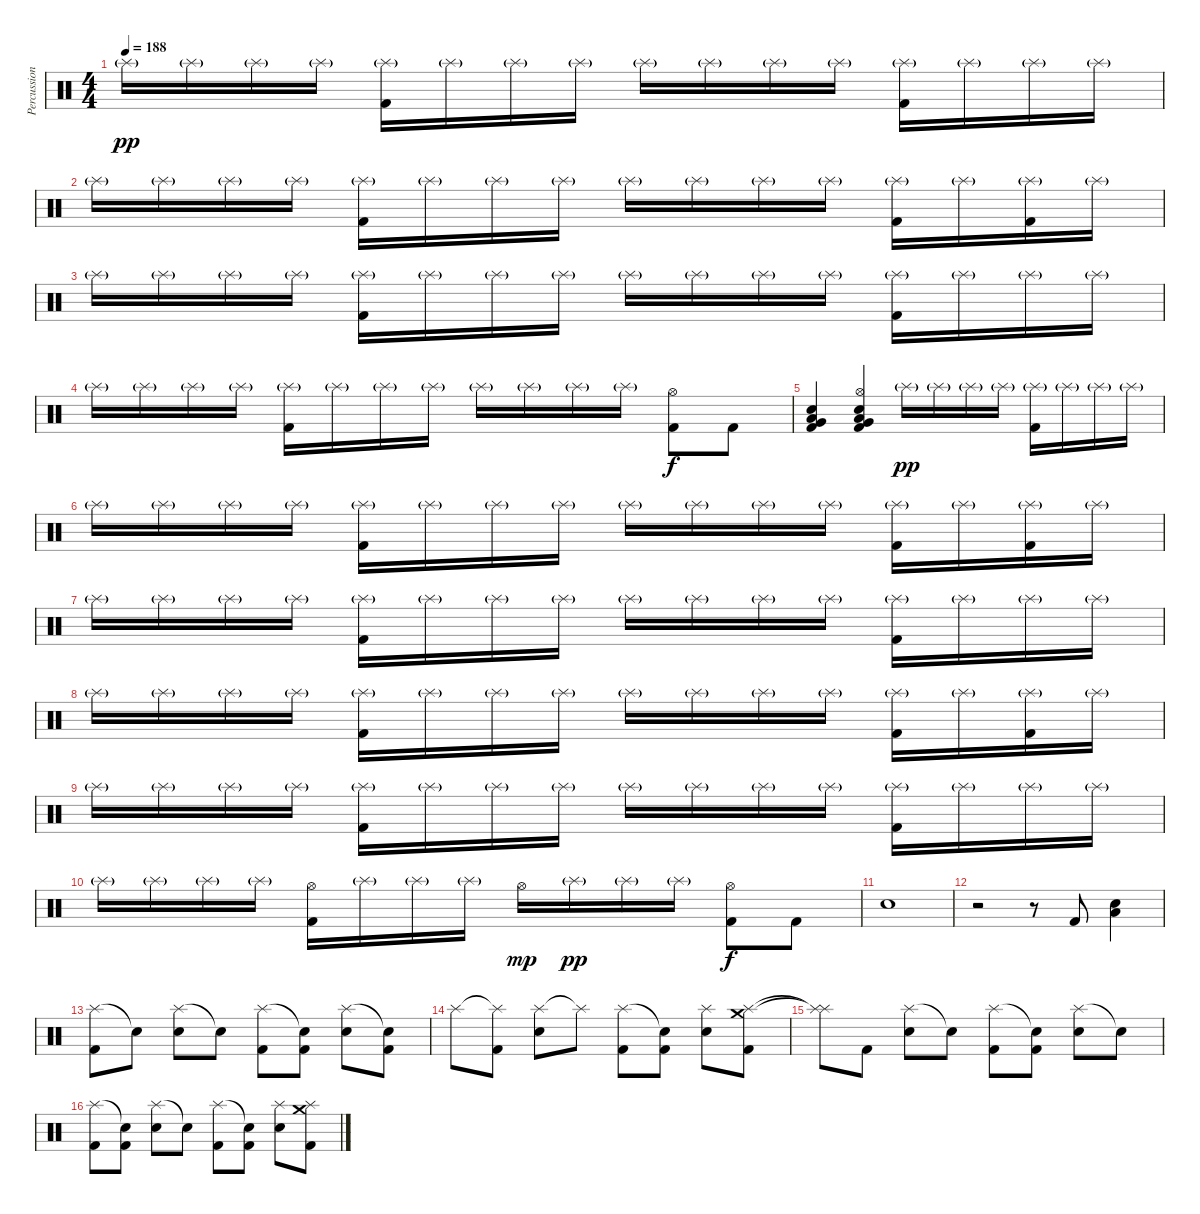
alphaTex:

\track ("Percussion" "Percussion") {instrument percussion}
\staff {score}
\articulation defaults
\ts (4 4)
\tempo 188
\clef neutral
\ks c "Splash (hit)"{g}.16{dy pp} "Splash (hit)"{g}.16 "Splash (hit)"{g}.16 "Splash (hit)"{g}.16
("Splash (hit)"{g} "Kick (hit) 2").16 "Splash (hit)"{g}.16 "Splash (hit)"{g}.16 "Splash (hit)"{g}.16 "Splash (hit)"{g}.16 "Splash (hit)"{g}.16 "Splash (hit)"{g}.16 "Splash (hit)"{g}.16 ("Splash (hit)"{g} "Kick (hit) 2").16 "Splash (hit)"{g}.16 "Splash (hit)"{g}.16 "Splash (hit)"{g}.16 |
"Splash (hit)"{g}.16 "Splash (hit)"{g}.16 "Splash (hit)"{g}.16 "Splash (hit)"{g}.16 ("Splash (hit)"{g} "Kick (hit) 2").16 "Splash (hit)"{g}.16 "Splash (hit)"{g}.16 "Splash (hit)"{g}.16 "Splash (hit)"{g}.16 "Splash (hit)"{g}.16 "Splash (hit)"{g}.16 "Splash (hit)"{g}.16 ("Splash (hit)"{g} "Kick (hit) 2").16 "Splash (hit)"{g}.16 ("Splash (hit)"{g} "Kick (hit) 2").16 "Splash (hit)"{g}.16 |
"Splash (hit)"{g}.16 "Splash (hit)"{g}.16 "Splash (hit)"{g}.16 "Splash (hit)"{g}.16 ("Splash (hit)"{g} "Kick (hit) 2").16 "Splash (hit)"{g}.16 "Splash (hit)"{g}.16 "Splash (hit)"{g}.16 "Splash (hit)"{g}.16 "Splash (hit)"{g}.16 "Splash (hit)"{g}.16 "Splash (hit)"{g}.16 ("Splash (hit)"{g} "Kick (hit) 2").16 "Splash (hit)"{g}.16 "Splash (hit)"{g}.16 "Splash (hit)"{g}.16 |
"Splash (hit)"{g}.16 "Splash (hit)"{g}.16 "Splash (hit)"{g}.16 "Splash (hit)"{g}.16 ("Splash (hit)"{g} "Kick (hit) 2").16 "Splash (hit)"{g}.16 "Splash (hit)"{g}.16 "Splash (hit)"{g}.16 "Splash (hit)"{g}.16 "Splash (hit)"{g}.16 "Splash (hit)"{g}.16 "Splash (hit)"{g}.16 ("Hi-Hat (open)" "Kick (hit) 2").8{dy f} "Kick (hit) 2".8 |
("Electric Snare (hit)" "Low Floor Tom (hit)" "Very Low Tom (hit)" "Kick (hit) 2").4 ("Hi-Hat (open)" "Electric Snare (hit)" "Low Floor Tom (hit)" "Very Low Tom (hit)" "Kick (hit) 2").4 "Splash (hit)"{g}.16{dy pp} "Splash (hit)"{g}.16 "Splash (hit)"{g}.16 "Splash (hit)"{g}.16 ("Splash (hit)"{g} "Kick (hit) 2").16 "Splash (hit)"{g}.16 "Splash (hit)"{g}.16 "Splash (hit)"{g}.16 |
"Splash (hit)"{g}.16 "Splash (hit)"{g}.16 "Splash (hit)"{g}.16 "Splash (hit)"{g}.16 ("Splash (hit)"{g} "Kick (hit) 2").16 "Splash (hit)"{g}.16 "Splash (hit)"{g}.16 "Splash (hit)"{g}.16 "Splash (hit)"{g}.16 "Splash (hit)"{g}.16 "Splash (hit)"{g}.16 "Splash (hit)"{g}.16 ("Splash (hit)"{g} "Kick (hit) 2").16 "Splash (hit)"{g}.16 ("Splash (hit)"{g} "Kick (hit) 2").16 "Splash (hit)"{g}.16 |
"Splash (hit)"{g}.16 "Splash (hit)"{g}.16 "Splash (hit)"{g}.16 "Splash (hit)"{g}.16 ("Splash (hit)"{g} "Kick (hit) 2").16 "Splash (hit)"{g}.16 "Splash (hit)"{g}.16 "Splash (hit)"{g}.16 "Splash (hit)"{g}.16 "Splash (hit)"{g}.16 "Splash (hit)"{g}.16 "Splash (hit)"{g}.16 ("Splash (hit)"{g} "Kick (hit) 2").16 "Splash (hit)"{g}.16 "Splash (hit)"{g}.16 "Splash (hit)"{g}.16 |
"Splash (hit)"{g}.16 "Splash (hit)"{g}.16 "Splash (hit)"{g}.16 "Splash (hit)"{g}.16 ("Splash (hit)"{g} "Kick (hit) 2").16 "Splash (hit)"{g}.16 "Splash (hit)"{g}.16 "Splash (hit)"{g}.16 "Splash (hit)"{g}.16 "Splash (hit)"{g}.16 "Splash (hit)"{g}.16 "Splash (hit)"{g}.16 ("Splash (hit)"{g} "Kick (hit) 2").16 "Splash (hit)"{g}.16 ("Splash (hit)"{g} "Kick (hit) 2").16 "Splash (hit)"{g}.16 |
"Splash (hit)"{g}.16 "Splash (hit)"{g}.16 "Splash (hit)"{g}.16 "Splash (hit)"{g}.16 ("Splash (hit)"{g} "Kick (hit) 2").16 "Splash (hit)"{g}.16 "Splash (hit)"{g}.16 "Splash (hit)"{g}.16 "Splash (hit)"{g}.16 "Splash (hit)"{g}.16 "Splash (hit)"{g}.16 "Splash (hit)"{g}.16 ("Splash (hit)"{g} "Kick (hit) 2").16 "Splash (hit)"{g}.16 "Splash (hit)"{g}.16 "Splash (hit)"{g}.16 |
"Splash (hit)"{g}.16 "Splash (hit)"{g}.16 "Splash (hit)"{g}.16 "Splash (hit)"{g}.16 ("Hi-Hat (open)" "Kick (hit) 2").16 "Splash (hit)"{g}.16 "Splash (hit)"{g}.16 "Splash (hit)"{g}.16 "Hi-Hat (open)".16{dy mp} "Splash (hit)"{g}.16{dy pp} "Splash (hit)"{g}.16 "Splash (hit)"{g}.16 ("Hi-Hat (open)" "Kick (hit) 2").8{dy f} "Kick (hit) 2".8 |
"Electric Snare (hit)".1 |
r.2 r.8 "Kick (hit) 2".8 ("Electric Snare (hit)" "Low Floor Tom (hit)").4 |
("Splash (hit)" "Kick (hit) 2").8 "Snare (hit)"{t}.8 ("Splash (hit)" "Electric Snare (hit)").8 "Snare (hit)"{t}.8 ("Splash (hit)" "Kick (hit) 2").8 ("Snare (hit)"{t} "Kick (hit) 2").8 ("Splash (hit)" "Electric Snare (hit)").8 ("Snare (hit)"{t} "Kick (hit) 2").8 |
"Splash (hit)".8 ("Splash (hit)"{t} "Kick (hit) 2").8 ("Splash (hit)" "Electric Snare (hit)").8 "Splash (hit)"{t}.8 ("Splash (hit)" "Kick (hit) 2").8 ("Snare (hit)"{t} "Kick (hit) 2").8 ("Splash (hit)" "Electric Snare (hit)").8 ("Crash medium (hit)" "Splash (hit)" "Kick (hit) 2").8 |
("Splash (hit)"{t} "Splash (hit)"{t}).8 "Kick (hit) 2".8 ("Splash (hit)" "Electric Snare (hit)").8 "Snare (hit)"{t}.8 ("Splash (hit)" "Kick (hit) 2").8 ("Snare (hit)"{t} "Kick (hit) 2").8 ("Splash (hit)" "Electric Snare (hit)").8 "Snare (hit)"{t}.8 |
("Splash (hit)" "Kick (hit) 2").8 ("Snare (hit)"{t} "Kick (hit) 2").8 ("Splash (hit)" "Electric Snare (hit)").8 "Snare (hit)"{t}.8 ("Splash (hit)" "Kick (hit) 2").8 ("Snare (hit)"{t} "Kick (hit) 2").8 ("Splash (hit)" "Electric Snare (hit)").8 ("Crash medium (hit)" "Splash (hit)" "Kick (hit) 2").8
